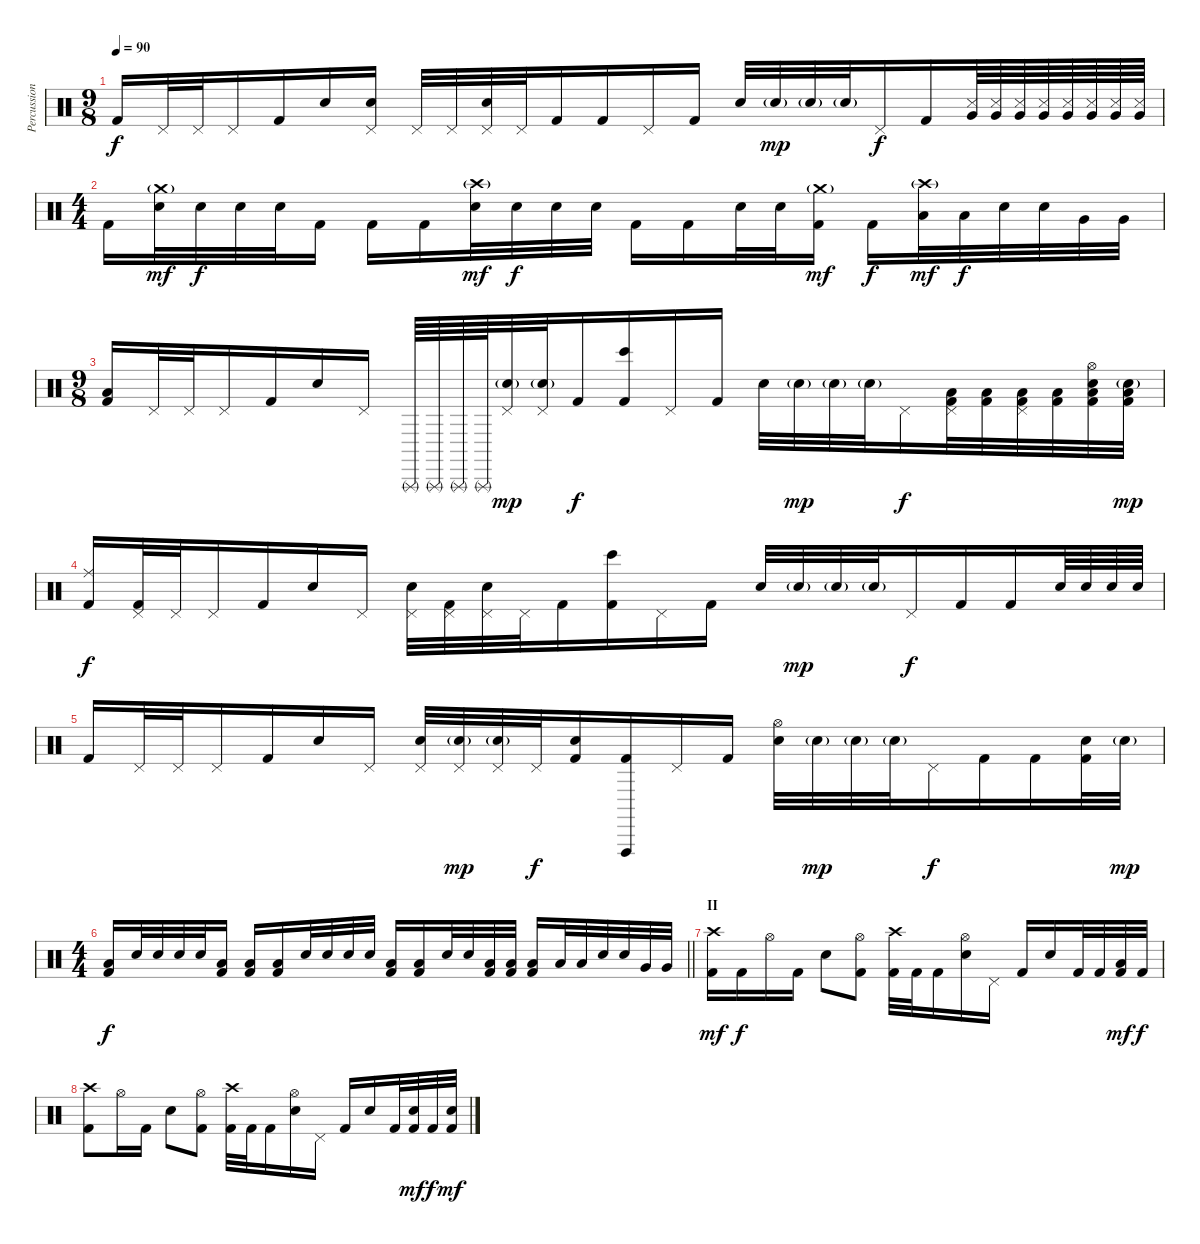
\track ("Percussion" "Percussion") {instrument percussion}
\staff {score}
\articulation defaults
\ts (9 8)
\tempo 90
\clef neutral
\ks c "Kick (hit) 2".16{dy f} "Pedal Hi-Hat (hit)".32 "Pedal Hi-Hat (hit)".32 "Pedal Hi-Hat (hit)".16 "Kick (hit) 2".16 "Snare (hit) 2".16
("Snare (hit) 2" "Pedal Hi-Hat (hit)").16 "Pedal Hi-Hat (hit)".32 "Pedal Hi-Hat (hit)".32 ("Snare (hit) 2" "Pedal Hi-Hat (hit)").32 "Pedal Hi-Hat (hit)".32 "Kick (hit) 2".16 "Kick (hit) 2".16 "Pedal Hi-Hat (hit)".16 "Kick (hit) 2".16 "Snare (hit) 2".32 "Snare (hit) 2"{g}.32{dy mp} "Snare (hit) 2"{g}.32 "Snare (hit) 2"{g}.32 "Pedal Hi-Hat (hit)".16{dy f} "Kick (hit) 2".16 ("Very Low Tom (hit)" "Snare (side stick) 3").64 ("Very Low Tom (hit)" "Snare (side stick) 3").64 ("Very Low Tom (hit)" "Snare (side stick) 3").64 ("Very Low Tom (hit)" "Snare (side stick) 3").64 ("Very Low Tom (hit)" "Snare (side stick) 3").64 ("Very Low Tom (hit)" "Snare (side stick) 3").64 ("Very Low Tom (hit)" "Snare (side stick) 3").64 ("Very Low Tom (hit)" "Snare (side stick) 3").64 |
\ts (4 4)
"Kick (hit) 2".16 ("Crash medium (hit)"{g} "Snare (hit) 2").32{dy mf} "Snare (hit) 2".32{dy f} "Snare (hit) 2".32 "Snare (hit) 2".32 "Kick (hit) 2".16 "Kick (hit) 2".16 "Kick (hit) 2".16 ("Crash high (hit)"{g} "Snare (hit) 2").32{dy mf} "Snare (hit) 2".32{dy f} "Snare (hit) 2".32 "Snare (hit) 2".32 "Kick (hit) 2".16 "Kick (hit) 2".16 "Snare (hit) 2".32 "Snare (hit) 2".32 ("Crash medium (hit)"{g} "Kick (hit) 2").16{dy mf} "Kick (hit) 2".16{dy f} ("Crash high (hit)"{g} "Low Tom (hit)").32{dy mf} "Low Tom (hit)".32{dy f} "Snare (hit) 2".32 "Snare (hit) 2".32 "Very Low Tom (hit)".32 "Very Low Tom (hit)".32 |
\ts (9 8)
("Low Floor Tom (hit)" "Kick (hit) 2").16 "Pedal Hi-Hat (hit)".32 "Pedal Hi-Hat (hit)".32 "Pedal Hi-Hat (hit)".16 "Kick (hit) 2".16 "Snare (hit) 2".16 "Pedal Hi-Hat (hit)".16 "Triangle (rnute)".64 "Triangle (rnute)".64 "Triangle (rnute)".64 "Triangle (rnute)".64 ("Snare (hit) 2"{g} "Pedal Hi-Hat (hit)").32{dy mp} ("Snare (hit) 2"{g} "Pedal Hi-Hat (hit)").32 "Kick (hit) 2".16{dy f} ("Bongo High (hit)" "Kick (hit) 2").16 "Pedal Hi-Hat (hit)".16 "Kick (hit) 2".16 "Snare (hit) 2".32 "Snare (hit) 2"{g}.32{dy mp} "Snare (hit) 2"{g}.32 "Snare (hit) 2"{g}.32 "Pedal Hi-Hat (hit)".16{dy f} ("Low Floor Tom (hit)" "Pedal Hi-Hat (hit)" "Kick (hit) 2").32 ("Low Floor Tom (hit)" "Kick (hit) 2").32 ("Low Floor Tom (hit)" "Pedal Hi-Hat (hit)" "Kick (hit) 2").32 ("Low Floor Tom (hit)" "Kick (hit) 2").32 ("Low Floor Tom (hit)" "Hi-Hat (open)" "Snare (hit) 2" "Kick (hit) 2").32 ("Low Floor Tom (hit)" "Snare (hit) 2"{g} "Kick (hit) 2").32{dy mp} |
("Ride (middle)" "Kick (hit) 2").16{dy f} ("Pedal Hi-Hat (hit)" "Kick (hit) 2").32 "Pedal Hi-Hat (hit)".32 "Pedal Hi-Hat (hit)".16 "Kick (hit) 2".16 "Snare (hit) 2".16 "Pedal Hi-Hat (hit)".16 ("Snare (hit) 2" "Pedal Hi-Hat (hit)").32 ("Pedal Hi-Hat (hit)" "Kick (hit) 2").32 ("Snare (hit) 2" "Pedal Hi-Hat (hit)").32 "Pedal Hi-Hat (hit)".32 "Kick (hit) 2".16 ("Bongo High (hit)" "Kick (hit) 2").16 "Pedal Hi-Hat (hit)".16 "Kick (hit) 2".16 "Snare (hit) 2".32 "Snare (hit) 2"{g}.32{dy mp} "Snare (hit) 2"{g}.32 "Snare (hit) 2"{g}.32 "Pedal Hi-Hat (hit)".16{dy f} "Kick (hit) 2".16 "Kick (hit) 2".16 "Snare (hit) 2".64 "Snare (hit) 2".64 "Snare (hit) 2".64 "Snare (hit) 2".64 |
"Kick (hit) 2".16 "Pedal Hi-Hat (hit)".32 "Pedal Hi-Hat (hit)".32 "Pedal Hi-Hat (hit)".16 "Kick (hit) 2".16 "Snare (hit) 2".16 "Pedal Hi-Hat (hit)".16 ("Snare (hit) 2" "Pedal Hi-Hat (hit)").32 ("Snare (hit) 2"{g} "Pedal Hi-Hat (hit)").32{dy mp} ("Snare (hit) 2"{g} "Pedal Hi-Hat (hit)").32 "Pedal Hi-Hat (hit)".32{dy f} ("Snare (hit) 2" "Kick (hit) 2").16 ("Vibraslap (hit)" "Kick (hit) 2").16 "Pedal Hi-Hat (hit)".16 "Kick (hit) 2".16 ("Hi-Hat (open)" "Snare (hit) 2").32 "Snare (hit) 2"{g}.32{dy mp} "Snare (hit) 2"{g}.32 "Snare (hit) 2"{g}.32 "Pedal Hi-Hat (hit)".16{dy f} "Kick (hit) 2".16 "Kick (hit) 2".16 ("Snare (hit) 2" "Kick (hit) 2").32 "Snare (hit) 2"{g}.32{dy mp} |
\ts (4 4)
\barLineRight lightlight
("Low Floor Tom (hit)" "Kick (hit) 2").16{dy f} "Snare (hit) 2".32 "Snare (hit) 2".32 "Snare (hit) 2".32 "Snare (hit) 2".32 ("Low Floor Tom (hit)" "Kick (hit) 2").16 ("Low Floor Tom (hit)" "Kick (hit) 2").16 ("Low Floor Tom (hit)" "Kick (hit) 2").16 "Snare (hit) 2".32 "Snare (hit) 2".32 "Snare (hit) 2".32 "Snare (hit) 2".32 ("Low Floor Tom (hit)" "Kick (hit) 2").16 ("Low Floor Tom (hit)" "Kick (hit) 2").16 "Snare (hit) 2".32 "Snare (hit) 2".32 ("Low Floor Tom (hit)" "Kick (hit) 2").32 ("Low Floor Tom (hit)" "Kick (hit) 2").32 ("Low Floor Tom (hit)" "Kick (hit) 2").16 "Low Tom (hit)".32 "Low Tom (hit)".32 "Snare (hit) 2".32 "Snare (hit) 2".32 "Very Low Tom (hit)".32 "Very Low Tom (hit)".32 |
\section ("" "II")
("Crash high (hit)" "Kick (hit) 2").16{dy mf} "Kick (hit) 2".16{dy f} "Hi-Hat (open)".16 "Kick (hit) 2".16 "Snare (hit) 2".8 ("Hi-Hat (open)" "Kick (hit) 2").8 ("Crash high (hit)" "Kick (hit) 2").32 "Kick (hit) 2".32 "Kick (hit) 2".16 ("Hi-Hat (open)" "Snare (hit) 2").16 "Pedal Hi-Hat (hit)".16 "Kick (hit) 2".16 "Snare (hit) 2".16 "Kick (hit) 2".32 "Kick (hit) 2".32 ("Low Floor Tom (hit)" "Kick (hit) 2").32{dy mf} "Kick (hit) 2".32{dy f} |
("Crash high (hit)" "Kick (hit) 2").8 "Hi-Hat (open)".16 "Kick (hit) 2".16 "Snare (hit) 2".8 ("Hi-Hat (open)" "Kick (hit) 2").8 ("Crash high (hit)" "Kick (hit) 2").32 "Kick (hit) 2".32 "Kick (hit) 2".16 ("Hi-Hat (open)" "Snare (hit) 2").16 "Pedal Hi-Hat (hit)".16 "Kick (hit) 2".16 "Snare (hit) 2".16 "Kick (hit) 2".32 ("Snare (hit) 2" "Kick (hit) 2").32{dy mf} "Kick (hit) 2".32{dy f} ("Snare (hit) 2" "Kick (hit) 2").32{dy mf}
